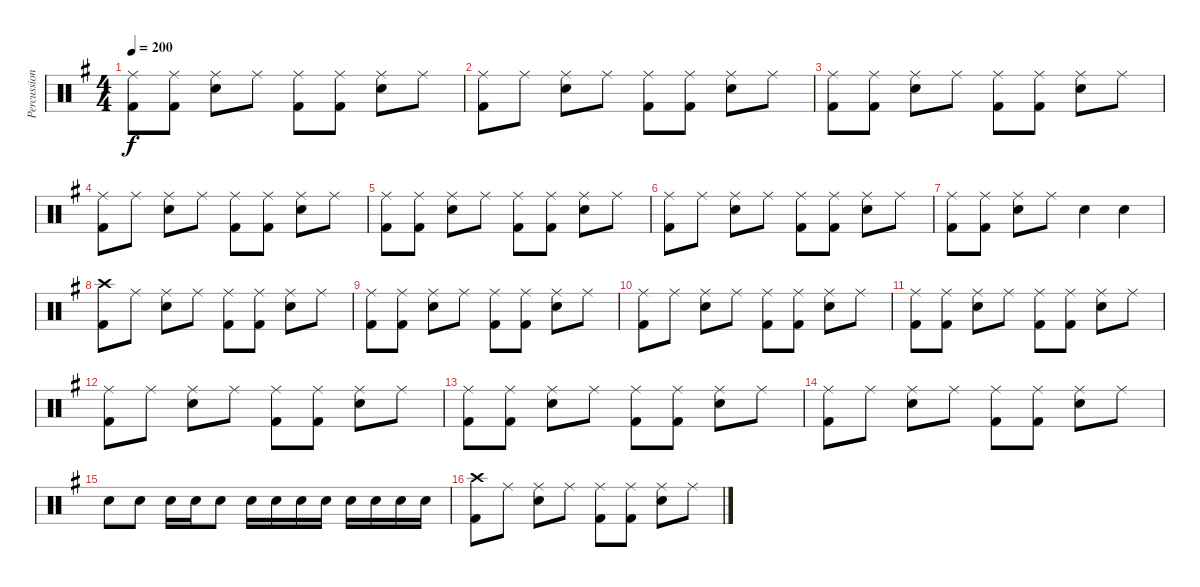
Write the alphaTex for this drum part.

\track ("Percussion" "Percussion") {instrument percussion}
\staff {score}
\articulation defaults
\ts (4 4)
\tempo 200
\clef neutral
\ks eminor
("Ride (middle)" "Kick (hit) 2").8{dy f} ("Ride (middle)" "Kick (hit) 2").8 ("Ride (middle)" "Snare (hit) 2").8 "Ride (middle)".8 ("Ride (middle)" "Kick (hit) 2").8 ("Ride (middle)" "Kick (hit) 2").8 ("Ride (middle)" "Snare (hit) 2").8 "Ride (middle)".8 |
("Ride (middle)" "Kick (hit) 2").8 "Ride (middle)".8 ("Ride (middle)" "Snare (hit) 2").8 "Ride (middle)".8 ("Ride (middle)" "Kick (hit) 2").8 ("Ride (middle)" "Kick (hit) 2").8 ("Ride (middle)" "Snare (hit) 2").8 "Ride (middle)".8 |
("Ride (middle)" "Kick (hit) 2").8 ("Ride (middle)" "Kick (hit) 2").8 ("Ride (middle)" "Snare (hit) 2").8 "Ride (middle)".8 ("Ride (middle)" "Kick (hit) 2").8 ("Ride (middle)" "Kick (hit) 2").8 ("Ride (middle)" "Snare (hit) 2").8 "Ride (middle)".8 |
("Ride (middle)" "Kick (hit) 2").8 "Ride (middle)".8 ("Ride (middle)" "Snare (hit) 2").8 "Ride (middle)".8 ("Ride (middle)" "Kick (hit) 2").8 ("Ride (middle)" "Kick (hit) 2").8 ("Ride (middle)" "Snare (hit) 2").8 "Ride (middle)".8 |
("Ride (middle)" "Kick (hit) 2").8 ("Ride (middle)" "Kick (hit) 2").8 ("Ride (middle)" "Snare (hit) 2").8 "Ride (middle)".8 ("Ride (middle)" "Kick (hit) 2").8 ("Ride (middle)" "Kick (hit) 2").8 ("Ride (middle)" "Snare (hit) 2").8 "Ride (middle)".8 |
("Ride (middle)" "Kick (hit) 2").8 "Ride (middle)".8 ("Ride (middle)" "Snare (hit) 2").8 "Ride (middle)".8 ("Ride (middle)" "Kick (hit) 2").8 ("Ride (middle)" "Kick (hit) 2").8 ("Ride (middle)" "Snare (hit) 2").8 "Ride (middle)".8 |
("Ride (middle)" "Kick (hit) 2").8 ("Ride (middle)" "Kick (hit) 2").8 ("Ride (middle)" "Snare (hit) 2").8 "Ride (middle)".8 "Snare (hit) 2".4 "Snare (hit) 2".4 |
("Crash high (hit)" "Kick (hit) 2").8 "Ride (middle)".8 ("Ride (middle)" "Snare (hit) 2").8 "Ride (middle)".8 ("Ride (middle)" "Kick (hit) 2").8 ("Ride (middle)" "Kick (hit) 2").8 ("Ride (middle)" "Snare (hit) 2").8 "Ride (middle)".8 |
("Ride (middle)" "Kick (hit) 2").8 ("Ride (middle)" "Kick (hit) 2").8 ("Ride (middle)" "Snare (hit) 2").8 "Ride (middle)".8 ("Ride (middle)" "Kick (hit) 2").8 ("Ride (middle)" "Kick (hit) 2").8 ("Ride (middle)" "Snare (hit) 2").8 "Ride (middle)".8 |
("Ride (middle)" "Kick (hit) 2").8 "Ride (middle)".8 ("Ride (middle)" "Snare (hit) 2").8 "Ride (middle)".8 ("Ride (middle)" "Kick (hit) 2").8 ("Ride (middle)" "Kick (hit) 2").8 ("Ride (middle)" "Snare (hit) 2").8 "Ride (middle)".8 |
("Ride (middle)" "Kick (hit) 2").8 ("Ride (middle)" "Kick (hit) 2").8 ("Ride (middle)" "Snare (hit) 2").8 "Ride (middle)".8 ("Ride (middle)" "Kick (hit) 2").8 ("Ride (middle)" "Kick (hit) 2").8 ("Ride (middle)" "Snare (hit) 2").8 "Ride (middle)".8 |
("Ride (middle)" "Kick (hit) 2").8 "Ride (middle)".8 ("Ride (middle)" "Snare (hit) 2").8 "Ride (middle)".8 ("Ride (middle)" "Kick (hit) 2").8 ("Ride (middle)" "Kick (hit) 2").8 ("Ride (middle)" "Snare (hit) 2").8 "Ride (middle)".8 |
("Ride (middle)" "Kick (hit) 2").8 ("Ride (middle)" "Kick (hit) 2").8 ("Ride (middle)" "Snare (hit) 2").8 "Ride (middle)".8 ("Ride (middle)" "Kick (hit) 2").8 ("Ride (middle)" "Kick (hit) 2").8 ("Ride (middle)" "Snare (hit) 2").8 "Ride (middle)".8 |
("Ride (middle)" "Kick (hit) 2").8 "Ride (middle)".8 ("Ride (middle)" "Snare (hit) 2").8 "Ride (middle)".8 ("Ride (middle)" "Kick (hit) 2").8 ("Ride (middle)" "Kick (hit) 2").8 ("Ride (middle)" "Snare (hit) 2").8 "Ride (middle)".8 |
"Snare (hit) 2".8 "Snare (hit) 2".8 "Snare (hit) 2".16 "Snare (hit) 2".16 "Snare (hit) 2".8 "Snare (hit) 2".16 "Snare (hit) 2".16 "Snare (hit) 2".16 "Snare (hit) 2".16 "Snare (hit) 2".16 "Snare (hit) 2".16 "Snare (hit) 2".16 "Snare (hit) 2".16 |
("Crash high (hit)" "Kick (hit) 2").8 "Ride (middle)".8 ("Ride (middle)" "Snare (hit) 2").8 "Ride (middle)".8 ("Ride (middle)" "Kick (hit) 2").8 ("Ride (middle)" "Kick (hit) 2").8 ("Ride (middle)" "Snare (hit) 2").8 "Ride (middle)".8
